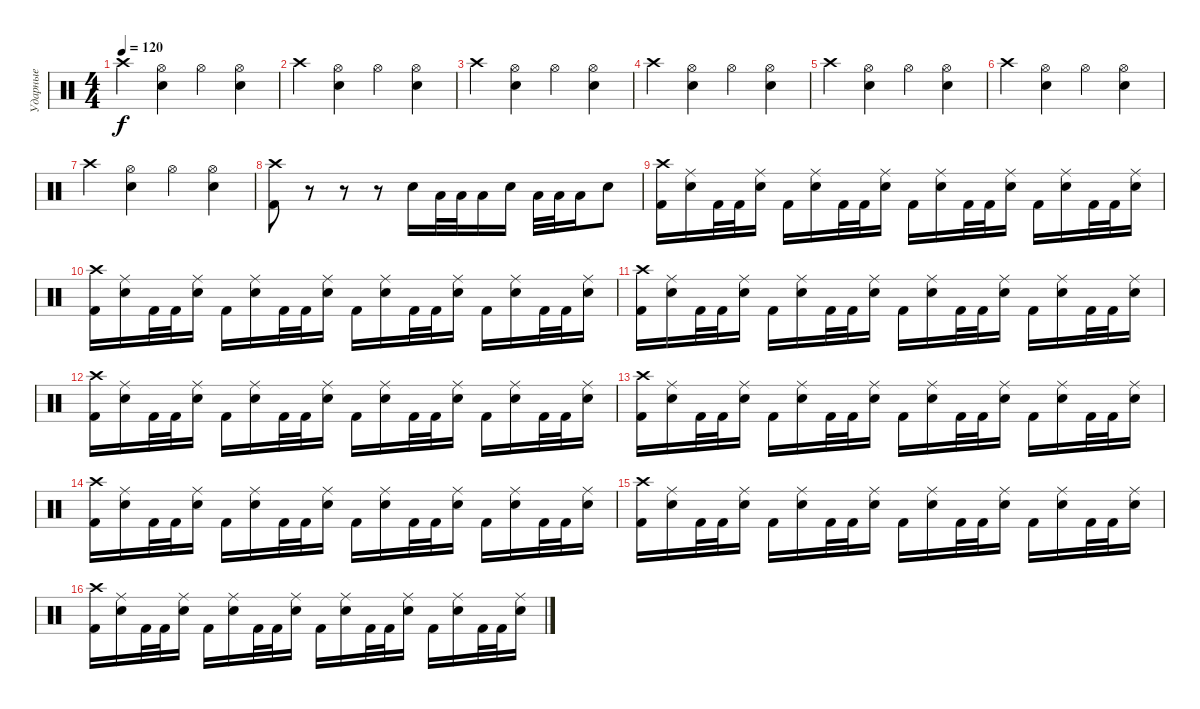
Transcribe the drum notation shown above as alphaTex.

\track ("Ударные" "Ударные") {instrument percussion}
\staff {score}
\articulation defaults
\ts (4 4)
\tempo 120
\clef neutral
\ks c "Crash high (hit)".4{dy f}
("Hi-Hat (open)" "Electric Snare (hit)").4 "Hi-Hat (open)".4 ("Hi-Hat (open)" "Electric Snare (hit)").4 |
"Crash high (hit)".4 ("Hi-Hat (open)" "Electric Snare (hit)").4 "Hi-Hat (open)".4 ("Hi-Hat (open)" "Electric Snare (hit)").4 |
"Crash high (hit)".4 ("Hi-Hat (open)" "Electric Snare (hit)").4 "Hi-Hat (open)".4 ("Hi-Hat (open)" "Electric Snare (hit)").4 |
"Crash high (hit)".4 ("Hi-Hat (open)" "Electric Snare (hit)").4 "Hi-Hat (open)".4 ("Hi-Hat (open)" "Electric Snare (hit)").4 |
"Crash high (hit)".4 ("Hi-Hat (open)" "Electric Snare (hit)").4 "Hi-Hat (open)".4 ("Hi-Hat (open)" "Electric Snare (hit)").4 |
"Crash high (hit)".4 ("Hi-Hat (open)" "Electric Snare (hit)").4 "Hi-Hat (open)".4 ("Hi-Hat (open)" "Electric Snare (hit)").4 |
"Crash high (hit)".4 ("Hi-Hat (open)" "Electric Snare (hit)").4 "Hi-Hat (open)".4 ("Hi-Hat (open)" "Electric Snare (hit)").4 |
("Kick (hit) 2" "Crash high (hit)").8 r.8 r.8 r.8 "Electric Snare (hit)".16 "Low Tom (hit)".32 "Low Tom (hit)".32 "Low Tom (hit)".16 "Electric Snare (hit)".16 "Low Tom (hit)".32 "Low Tom (hit)".32 "Low Tom (hit)".16 "Electric Snare (hit)".8 |
("Kick (hit) 2" "Crash high (hit)").16 ("Electric Snare (hit)" "Ride (middle)").16 "Kick (hit) 2".32 "Kick (hit) 2".32 ("Electric Snare (hit)" "Ride (middle)").16 "Kick (hit) 2".16 ("Electric Snare (hit)" "Ride (middle)").16 "Kick (hit) 2".32 "Kick (hit) 2".32 ("Electric Snare (hit)" "Ride (middle)").16 "Kick (hit) 2".16 ("Electric Snare (hit)" "Ride (middle)").16 "Kick (hit) 2".32 "Kick (hit) 2".32 ("Electric Snare (hit)" "Ride (middle)").16 "Kick (hit) 2".16 ("Electric Snare (hit)" "Ride (middle)").16 "Kick (hit) 2".32 "Kick (hit) 2".32 ("Electric Snare (hit)" "Ride (middle)").16 |
("Kick (hit) 2" "Crash high (hit)").16 ("Electric Snare (hit)" "Ride (middle)").16 "Kick (hit) 2".32 "Kick (hit) 2".32 ("Electric Snare (hit)" "Ride (middle)").16 "Kick (hit) 2".16 ("Electric Snare (hit)" "Ride (middle)").16 "Kick (hit) 2".32 "Kick (hit) 2".32 ("Electric Snare (hit)" "Ride (middle)").16 "Kick (hit) 2".16 ("Electric Snare (hit)" "Ride (middle)").16 "Kick (hit) 2".32 "Kick (hit) 2".32 ("Electric Snare (hit)" "Ride (middle)").16 "Kick (hit) 2".16 ("Electric Snare (hit)" "Ride (middle)").16 "Kick (hit) 2".32 "Kick (hit) 2".32 ("Electric Snare (hit)" "Ride (middle)").16 |
("Kick (hit) 2" "Crash high (hit)").16 ("Electric Snare (hit)" "Ride (middle)").16 "Kick (hit) 2".32 "Kick (hit) 2".32 ("Electric Snare (hit)" "Ride (middle)").16 "Kick (hit) 2".16 ("Electric Snare (hit)" "Ride (middle)").16 "Kick (hit) 2".32 "Kick (hit) 2".32 ("Electric Snare (hit)" "Ride (middle)").16 "Kick (hit) 2".16 ("Electric Snare (hit)" "Ride (middle)").16 "Kick (hit) 2".32 "Kick (hit) 2".32 ("Electric Snare (hit)" "Ride (middle)").16 "Kick (hit) 2".16 ("Electric Snare (hit)" "Ride (middle)").16 "Kick (hit) 2".32 "Kick (hit) 2".32 ("Electric Snare (hit)" "Ride (middle)").16 |
("Kick (hit) 2" "Crash high (hit)").16 ("Electric Snare (hit)" "Ride (middle)").16 "Kick (hit) 2".32 "Kick (hit) 2".32 ("Electric Snare (hit)" "Ride (middle)").16 "Kick (hit) 2".16 ("Electric Snare (hit)" "Ride (middle)").16 "Kick (hit) 2".32 "Kick (hit) 2".32 ("Electric Snare (hit)" "Ride (middle)").16 "Kick (hit) 2".16 ("Electric Snare (hit)" "Ride (middle)").16 "Kick (hit) 2".32 "Kick (hit) 2".32 ("Electric Snare (hit)" "Ride (middle)").16 "Kick (hit) 2".16 ("Electric Snare (hit)" "Ride (middle)").16 "Kick (hit) 2".32 "Kick (hit) 2".32 ("Electric Snare (hit)" "Ride (middle)").16 |
("Kick (hit) 2" "Crash high (hit)").16 ("Electric Snare (hit)" "Ride (middle)").16 "Kick (hit) 2".32 "Kick (hit) 2".32 ("Electric Snare (hit)" "Ride (middle)").16 "Kick (hit) 2".16 ("Electric Snare (hit)" "Ride (middle)").16 "Kick (hit) 2".32 "Kick (hit) 2".32 ("Electric Snare (hit)" "Ride (middle)").16 "Kick (hit) 2".16 ("Electric Snare (hit)" "Ride (middle)").16 "Kick (hit) 2".32 "Kick (hit) 2".32 ("Electric Snare (hit)" "Ride (middle)").16 "Kick (hit) 2".16 ("Electric Snare (hit)" "Ride (middle)").16 "Kick (hit) 2".32 "Kick (hit) 2".32 ("Electric Snare (hit)" "Ride (middle)").16 |
("Kick (hit) 2" "Crash high (hit)").16 ("Electric Snare (hit)" "Ride (middle)").16 "Kick (hit) 2".32 "Kick (hit) 2".32 ("Electric Snare (hit)" "Ride (middle)").16 "Kick (hit) 2".16 ("Electric Snare (hit)" "Ride (middle)").16 "Kick (hit) 2".32 "Kick (hit) 2".32 ("Electric Snare (hit)" "Ride (middle)").16 "Kick (hit) 2".16 ("Electric Snare (hit)" "Ride (middle)").16 "Kick (hit) 2".32 "Kick (hit) 2".32 ("Electric Snare (hit)" "Ride (middle)").16 "Kick (hit) 2".16 ("Electric Snare (hit)" "Ride (middle)").16 "Kick (hit) 2".32 "Kick (hit) 2".32 ("Electric Snare (hit)" "Ride (middle)").16 |
("Kick (hit) 2" "Crash high (hit)").16 ("Electric Snare (hit)" "Ride (middle)").16 "Kick (hit) 2".32 "Kick (hit) 2".32 ("Electric Snare (hit)" "Ride (middle)").16 "Kick (hit) 2".16 ("Electric Snare (hit)" "Ride (middle)").16 "Kick (hit) 2".32 "Kick (hit) 2".32 ("Electric Snare (hit)" "Ride (middle)").16 "Kick (hit) 2".16 ("Electric Snare (hit)" "Ride (middle)").16 "Kick (hit) 2".32 "Kick (hit) 2".32 ("Electric Snare (hit)" "Ride (middle)").16 "Kick (hit) 2".16 ("Electric Snare (hit)" "Ride (middle)").16 "Kick (hit) 2".32 "Kick (hit) 2".32 ("Electric Snare (hit)" "Ride (middle)").16 |
("Kick (hit) 2" "Crash high (hit)").16 ("Electric Snare (hit)" "Ride (middle)").16 "Kick (hit) 2".32 "Kick (hit) 2".32 ("Electric Snare (hit)" "Ride (middle)").16 "Kick (hit) 2".16 ("Electric Snare (hit)" "Ride (middle)").16 "Kick (hit) 2".32 "Kick (hit) 2".32 ("Electric Snare (hit)" "Ride (middle)").16 "Kick (hit) 2".16 ("Electric Snare (hit)" "Ride (middle)").16 "Kick (hit) 2".32 "Kick (hit) 2".32 ("Electric Snare (hit)" "Ride (middle)").16 "Kick (hit) 2".16 ("Electric Snare (hit)" "Ride (middle)").16 "Kick (hit) 2".32 "Kick (hit) 2".32 ("Electric Snare (hit)" "Ride (middle)").16
